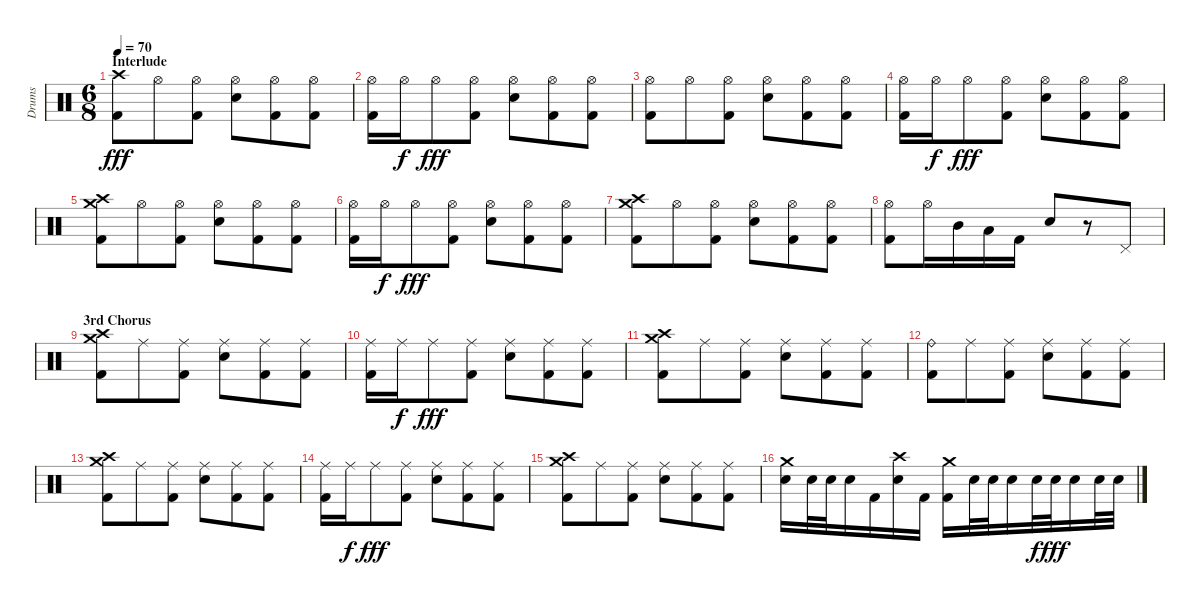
\track ("Drums" "Drums") {instrument percussion}
\staff {score}
\articulation defaults
\ts (6 8)
\section ("" "Interlude")
\tempo 70
\clef neutral
\ks c
("Crash high (hit)" "Kick (hit) 2").8{dy fff} "Hi-Hat (open)".8 ("Hi-Hat (open)" "Kick (hit) 2").8 ("Hi-Hat (open)" "Electric Snare (hit)").8 ("Hi-Hat (open)" "Kick (hit) 2").8 ("Hi-Hat (open)" "Kick (hit) 2").8 |
("Hi-Hat (open)" "Kick (hit) 2").16 "Hi-Hat (open)".16{dy f} "Hi-Hat (open)".8{dy fff} ("Hi-Hat (open)" "Kick (hit) 2").8 ("Hi-Hat (open)" "Electric Snare (hit)").8 ("Hi-Hat (open)" "Kick (hit) 2").8 ("Hi-Hat (open)" "Kick (hit) 2").8 |
("Hi-Hat (open)" "Kick (hit) 2").8 "Hi-Hat (open)".8 ("Hi-Hat (open)" "Kick (hit) 2").8 ("Hi-Hat (open)" "Electric Snare (hit)").8 ("Hi-Hat (open)" "Kick (hit) 2").8 ("Hi-Hat (open)" "Kick (hit) 2").8 |
("Hi-Hat (open)" "Kick (hit) 2").16 "Hi-Hat (open)".16{dy f} "Hi-Hat (open)".8{dy fff} ("Hi-Hat (open)" "Kick (hit) 2").8 ("Hi-Hat (open)" "Electric Snare (hit)").8 ("Hi-Hat (open)" "Kick (hit) 2").8 ("Hi-Hat (open)" "Kick (hit) 2").8 |
("Crash high (hit)" "Crash medium (hit)" "Kick (hit) 2").8 "Hi-Hat (open)".8 ("Hi-Hat (open)" "Kick (hit) 2").8 ("Hi-Hat (open)" "Electric Snare (hit)").8 ("Hi-Hat (open)" "Kick (hit) 2").8 ("Hi-Hat (open)" "Kick (hit) 2").8 |
("Hi-Hat (open)" "Kick (hit) 2").16 "Hi-Hat (open)".16{dy f} "Hi-Hat (open)".8{dy fff} ("Hi-Hat (open)" "Kick (hit) 2").8 ("Hi-Hat (open)" "Electric Snare (hit)").8 ("Hi-Hat (open)" "Kick (hit) 2").8 ("Hi-Hat (open)" "Kick (hit) 2").8 |
("Crash high (hit)" "Crash medium (hit)" "Kick (hit) 2").8 "Hi-Hat (open)".8 ("Hi-Hat (open)" "Kick (hit) 2").8 ("Hi-Hat (open)" "Electric Snare (hit)").8 ("Hi-Hat (open)" "Kick (hit) 2").8 ("Hi-Hat (open)" "Kick (hit) 2").8 |
("Hi-Hat (open)" "Kick (hit) 2").8 "Hi-Hat (open)".16 "Mid Tom (hit)".16 "Low Tom (hit)".16 "Kick (hit) 2".16 "Electric Snare (hit)".8 r.8 "Pedal Hi-Hat (hit)".8 |
\section ("" "3rd Chorus")
("Crash high (hit)" "Crash medium (hit)" "Kick (hit) 2").8 "Ride (middle)".8 ("Ride (middle)" "Kick (hit) 2").8 ("Ride (middle)" "Electric Snare (hit)").8 ("Ride (middle)" "Kick (hit) 2").8 ("Ride (middle)" "Kick (hit) 2").8 |
("Ride (middle)" "Kick (hit) 2").16 "Ride (middle)".16{dy f} "Ride (middle)".8{dy fff} ("Ride (middle)" "Kick (hit) 2").8 ("Ride (middle)" "Electric Snare (hit)").8 ("Ride (middle)" "Kick (hit) 2").8 ("Ride (middle)" "Kick (hit) 2").8 |
("Crash high (hit)" "Crash medium (hit)" "Kick (hit) 2").8 "Ride (middle)".8 ("Ride (middle)" "Kick (hit) 2").8 ("Ride (middle)" "Electric Snare (hit)").8 ("Ride (middle)" "Kick (hit) 2").8 ("Ride (middle)" "Kick (hit) 2").8 |
("Ride (bell)" "Kick (hit) 2").8 "Ride (middle)".8 ("Ride (middle)" "Kick (hit) 2").8 ("Ride (middle)" "Electric Snare (hit)").8 ("Ride (middle)" "Kick (hit) 2").8 ("Ride (middle)" "Kick (hit) 2").8 |
("Crash high (hit)" "Crash medium (hit)" "Kick (hit) 2").8 "Ride (middle)".8 ("Ride (middle)" "Kick (hit) 2").8 ("Ride (middle)" "Electric Snare (hit)").8 ("Ride (middle)" "Kick (hit) 2").8 ("Ride (middle)" "Kick (hit) 2").8 |
("Ride (middle)" "Kick (hit) 2").16 "Ride (middle)".16{dy f} "Ride (middle)".8{dy fff} ("Ride (middle)" "Kick (hit) 2").8 ("Ride (middle)" "Electric Snare (hit)").8 ("Ride (middle)" "Kick (hit) 2").8 ("Ride (middle)" "Kick (hit) 2").8 |
("Crash high (hit)" "Crash medium (hit)" "Kick (hit) 2").8 "Ride (middle)".8 ("Ride (middle)" "Kick (hit) 2").8 ("Ride (middle)" "Electric Snare (hit)").8 ("Ride (middle)" "Kick (hit) 2").8 ("Ride (middle)" "Kick (hit) 2").8 |
("Crash medium (hit)" "Electric Snare (hit)").16 "Electric Snare (hit)".32 "Electric Snare (hit)".32 "Electric Snare (hit)".16 "Kick (hit) 2".16 ("Crash high (hit)" "Electric Snare (hit)").16 "Kick (hit) 2".16 ("Crash medium (hit)" "Kick (hit) 2").16 "Electric Snare (hit)".32 "Electric Snare (hit)".32 "Electric Snare (hit)".16 "Electric Snare (hit)".32{dy f} "Electric Snare (hit)".32{dy fff} "Electric Snare (hit)".16 "Electric Snare (hit)".32 "Electric Snare (hit)".32
